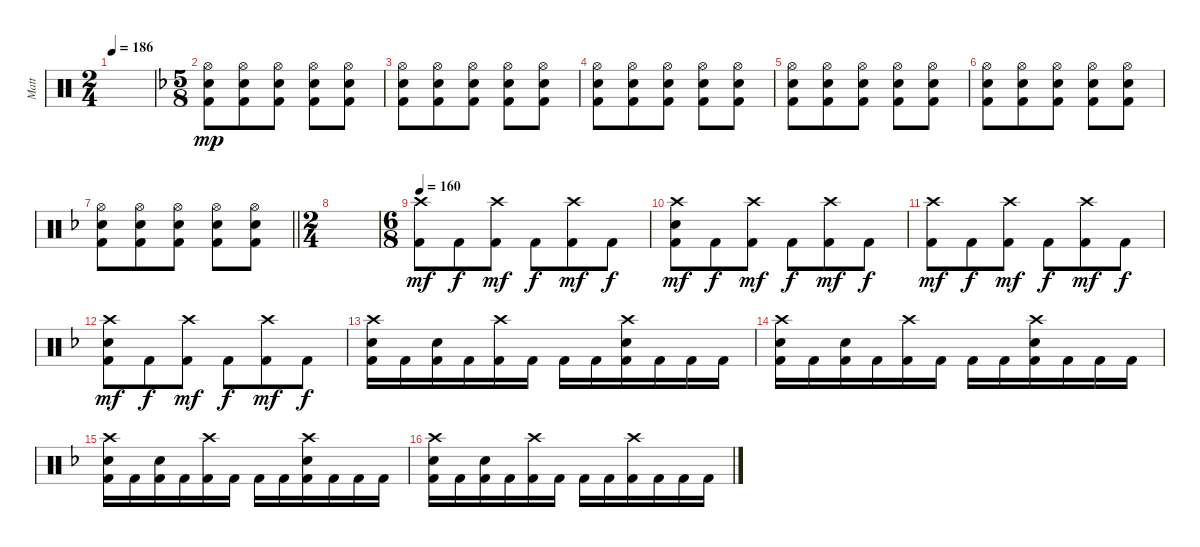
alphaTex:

\track ("Matt" "Matt") {instrument percussion}
\staff {score}
\articulation defaults
\ts (2 4)
\tempo 186
\clef neutral
\ks c
|
\ts (5 8)
\ks f
("Hi-Hat (open)" "Electric Snare (hit)" "Kick (hit) 2").8{dy mp} ("Hi-Hat (open)" "Electric Snare (hit)" "Kick (hit) 2").8 ("Hi-Hat (open)" "Electric Snare (hit)" "Kick (hit) 2").8 ("Hi-Hat (open)" "Electric Snare (hit)" "Kick (hit) 2").8 ("Hi-Hat (open)" "Electric Snare (hit)" "Kick (hit) 2").8 |
("Hi-Hat (open)" "Electric Snare (hit)" "Kick (hit) 2").8 ("Hi-Hat (open)" "Electric Snare (hit)" "Kick (hit) 2").8 ("Hi-Hat (open)" "Electric Snare (hit)" "Kick (hit) 2").8 ("Hi-Hat (open)" "Electric Snare (hit)" "Kick (hit) 2").8 ("Hi-Hat (open)" "Electric Snare (hit)" "Kick (hit) 2").8 |
("Hi-Hat (open)" "Electric Snare (hit)" "Kick (hit) 2").8 ("Hi-Hat (open)" "Electric Snare (hit)" "Kick (hit) 2").8 ("Hi-Hat (open)" "Electric Snare (hit)" "Kick (hit) 2").8 ("Hi-Hat (open)" "Electric Snare (hit)" "Kick (hit) 2").8 ("Hi-Hat (open)" "Electric Snare (hit)" "Kick (hit) 2").8 |
("Hi-Hat (open)" "Electric Snare (hit)" "Kick (hit) 2").8 ("Hi-Hat (open)" "Electric Snare (hit)" "Kick (hit) 2").8 ("Hi-Hat (open)" "Electric Snare (hit)" "Kick (hit) 2").8 ("Hi-Hat (open)" "Electric Snare (hit)" "Kick (hit) 2").8 ("Hi-Hat (open)" "Electric Snare (hit)" "Kick (hit) 2").8 |
("Hi-Hat (open)" "Electric Snare (hit)" "Kick (hit) 2").8 ("Hi-Hat (open)" "Electric Snare (hit)" "Kick (hit) 2").8 ("Hi-Hat (open)" "Electric Snare (hit)" "Kick (hit) 2").8 ("Hi-Hat (open)" "Electric Snare (hit)" "Kick (hit) 2").8 ("Hi-Hat (open)" "Electric Snare (hit)" "Kick (hit) 2").8 |
\barLineRight lightlight
("Hi-Hat (open)" "Electric Snare (hit)" "Kick (hit) 2").8 ("Hi-Hat (open)" "Electric Snare (hit)" "Kick (hit) 2").8 ("Hi-Hat (open)" "Electric Snare (hit)" "Kick (hit) 2").8 ("Hi-Hat (open)" "Electric Snare (hit)" "Kick (hit) 2").8 ("Hi-Hat (open)" "Electric Snare (hit)" "Kick (hit) 2").8 |
\ts (2 4)
|
\ts (6 8)
\tempo 160
("Crash high (hit)" "Kick (hit) 2").8{dy mf} "Kick (hit) 2".8{dy f} ("Crash high (hit)" "Kick (hit) 2").8{dy mf} "Kick (hit) 2".8{dy f} ("Crash high (hit)" "Kick (hit) 2").8{dy mf} "Kick (hit) 2".8{dy f} |
("Crash high (hit)" "Electric Snare (hit)" "Kick (hit) 2").8{dy mf} "Kick (hit) 2".8{dy f} ("Crash high (hit)" "Kick (hit) 2").8{dy mf} "Kick (hit) 2".8{dy f} ("Crash high (hit)" "Kick (hit) 2").8{dy mf} "Kick (hit) 2".8{dy f} |
("Crash high (hit)" "Kick (hit) 2").8{dy mf} "Kick (hit) 2".8{dy f} ("Crash high (hit)" "Kick (hit) 2").8{dy mf} "Kick (hit) 2".8{dy f} ("Crash high (hit)" "Kick (hit) 2").8{dy mf} "Kick (hit) 2".8{dy f} |
("Crash high (hit)" "Electric Snare (hit)" "Kick (hit) 2").8{dy mf} "Kick (hit) 2".8{dy f} ("Crash high (hit)" "Kick (hit) 2").8{dy mf} "Kick (hit) 2".8{dy f} ("Crash high (hit)" "Kick (hit) 2").8{dy mf} "Kick (hit) 2".8{dy f} |
("Crash high (hit)" "Electric Snare (hit)" "Kick (hit) 2").16 "Kick (hit) 2".16 ("Electric Snare (hit)" "Kick (hit) 2").16 "Kick (hit) 2".16 ("Crash high (hit)" "Kick (hit) 2").16 "Kick (hit) 2".16 "Kick (hit) 2".16 "Kick (hit) 2".16 ("Crash high (hit)" "Electric Snare (hit)" "Kick (hit) 2").16 "Kick (hit) 2".16 "Kick (hit) 2".16 "Kick (hit) 2".16 |
("Crash high (hit)" "Electric Snare (hit)" "Kick (hit) 2").16 "Kick (hit) 2".16 ("Electric Snare (hit)" "Kick (hit) 2").16 "Kick (hit) 2".16 ("Crash high (hit)" "Kick (hit) 2").16 "Kick (hit) 2".16 "Kick (hit) 2".16 "Kick (hit) 2".16 ("Crash high (hit)" "Electric Snare (hit)" "Kick (hit) 2").16 "Kick (hit) 2".16 "Kick (hit) 2".16 "Kick (hit) 2".16 |
("Crash high (hit)" "Electric Snare (hit)" "Kick (hit) 2").16 "Kick (hit) 2".16 ("Electric Snare (hit)" "Kick (hit) 2").16 "Kick (hit) 2".16 ("Crash high (hit)" "Kick (hit) 2").16 "Kick (hit) 2".16 "Kick (hit) 2".16 "Kick (hit) 2".16 ("Crash high (hit)" "Electric Snare (hit)" "Kick (hit) 2").16 "Kick (hit) 2".16 "Kick (hit) 2".16 "Kick (hit) 2".16 |
("Crash high (hit)" "Electric Snare (hit)" "Kick (hit) 2").16 "Kick (hit) 2".16 ("Electric Snare (hit)" "Kick (hit) 2").16 "Kick (hit) 2".16 ("Crash high (hit)" "Kick (hit) 2").16 "Kick (hit) 2".16 "Kick (hit) 2".16 "Kick (hit) 2".16 ("Crash high (hit)" "Kick (hit) 2").16 "Kick (hit) 2".16 "Kick (hit) 2".16 "Kick (hit) 2".16
